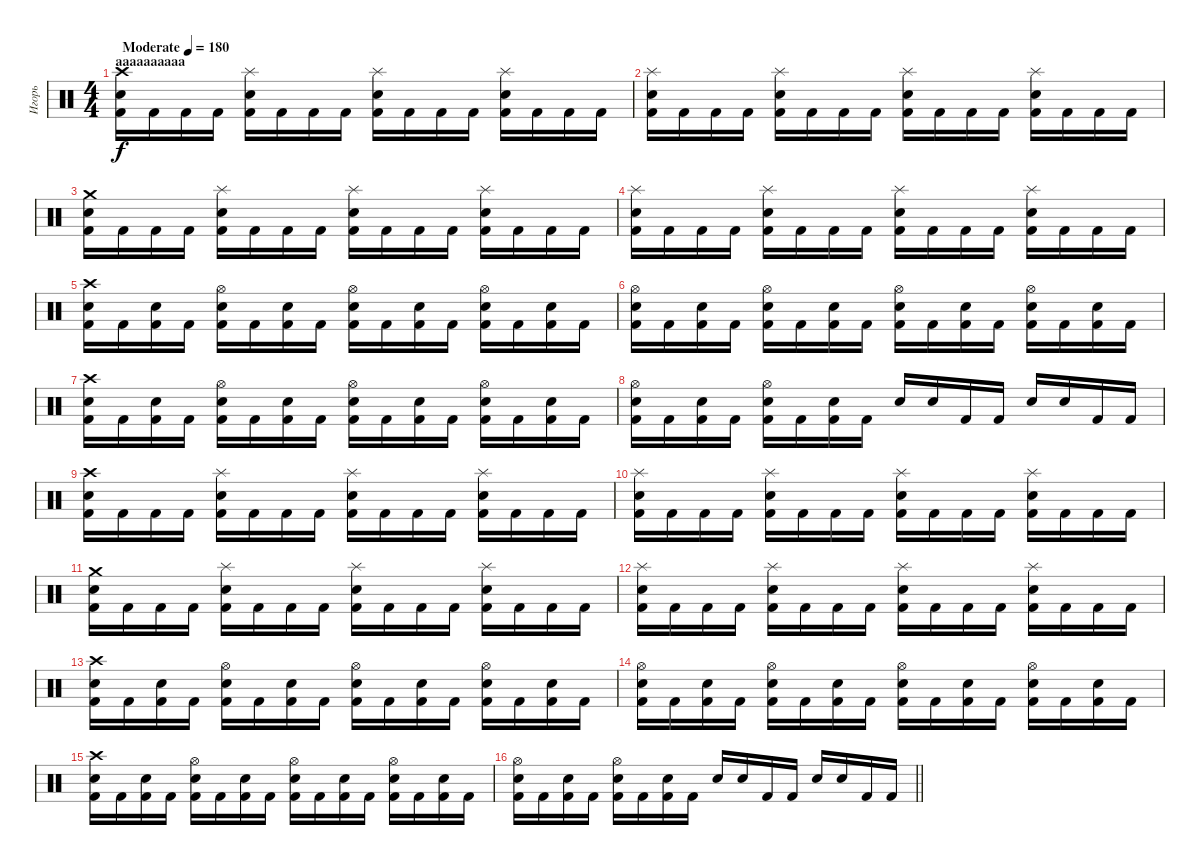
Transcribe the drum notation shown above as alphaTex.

\track ("Игорь" "Игорь") {instrument percussion}
\staff {score}
\articulation defaults
\ts (4 4)
\section ("" "аааааааааа")
\tempo (180 "Moderate")
\clef neutral
\ks c
("Crash high (hit)" "Electric Snare (hit)" "Kick (hit) 2").16{dy f} "Kick (hit) 2".16 "Kick (hit) 2".16 "Kick (hit) 2".16 ("Splash (hit)" "Electric Snare (hit)" "Kick (hit) 2").16 "Kick (hit) 2".16 "Kick (hit) 2".16 "Kick (hit) 2".16 ("Splash (hit)" "Electric Snare (hit)" "Kick (hit) 2").16 "Kick (hit) 2".16 "Kick (hit) 2".16 "Kick (hit) 2".16 ("Splash (hit)" "Electric Snare (hit)" "Kick (hit) 2").16 "Kick (hit) 2".16 "Kick (hit) 2".16 "Kick (hit) 2".16 |
("Splash (hit)" "Electric Snare (hit)" "Kick (hit) 2").16 "Kick (hit) 2".16 "Kick (hit) 2".16 "Kick (hit) 2".16 ("Splash (hit)" "Electric Snare (hit)" "Kick (hit) 2").16 "Kick (hit) 2".16 "Kick (hit) 2".16 "Kick (hit) 2".16 ("Splash (hit)" "Electric Snare (hit)" "Kick (hit) 2").16 "Kick (hit) 2".16 "Kick (hit) 2".16 "Kick (hit) 2".16 ("Splash (hit)" "Electric Snare (hit)" "Kick (hit) 2").16 "Kick (hit) 2".16 "Kick (hit) 2".16 "Kick (hit) 2".16 |
("Crash medium (hit)" "Electric Snare (hit)" "Kick (hit) 2").16 "Kick (hit) 2".16 "Kick (hit) 2".16 "Kick (hit) 2".16 ("Splash (hit)" "Electric Snare (hit)" "Kick (hit) 2").16 "Kick (hit) 2".16 "Kick (hit) 2".16 "Kick (hit) 2".16 ("Splash (hit)" "Electric Snare (hit)" "Kick (hit) 2").16 "Kick (hit) 2".16 "Kick (hit) 2".16 "Kick (hit) 2".16 ("Splash (hit)" "Electric Snare (hit)" "Kick (hit) 2").16 "Kick (hit) 2".16 "Kick (hit) 2".16 "Kick (hit) 2".16 |
("Splash (hit)" "Electric Snare (hit)" "Kick (hit) 2").16 "Kick (hit) 2".16 "Kick (hit) 2".16 "Kick (hit) 2".16 ("Splash (hit)" "Electric Snare (hit)" "Kick (hit) 2").16 "Kick (hit) 2".16 "Kick (hit) 2".16 "Kick (hit) 2".16 ("Splash (hit)" "Electric Snare (hit)" "Kick (hit) 2").16 "Kick (hit) 2".16 "Kick (hit) 2".16 "Kick (hit) 2".16 ("Splash (hit)" "Electric Snare (hit)" "Kick (hit) 2").16 "Kick (hit) 2".16 "Kick (hit) 2".16 "Kick (hit) 2".16 |
("Crash high (hit)" "Electric Snare (hit)" "Kick (hit) 2").16 "Kick (hit) 2".16 ("Electric Snare (hit)" "Kick (hit) 2").16 "Kick (hit) 2".16 ("Hi-Hat (open)" "Electric Snare (hit)" "Kick (hit) 2").16 "Kick (hit) 2".16 ("Electric Snare (hit)" "Kick (hit) 2").16 "Kick (hit) 2".16 ("Hi-Hat (open)" "Electric Snare (hit)" "Kick (hit) 2").16 "Kick (hit) 2".16 ("Electric Snare (hit)" "Kick (hit) 2").16 "Kick (hit) 2".16 ("Hi-Hat (open)" "Electric Snare (hit)" "Kick (hit) 2").16 "Kick (hit) 2".16 ("Electric Snare (hit)" "Kick (hit) 2").16 "Kick (hit) 2".16 |
("Hi-Hat (open)" "Electric Snare (hit)" "Kick (hit) 2").16 "Kick (hit) 2".16 ("Electric Snare (hit)" "Kick (hit) 2").16 "Kick (hit) 2".16 ("Hi-Hat (open)" "Electric Snare (hit)" "Kick (hit) 2").16 "Kick (hit) 2".16 ("Electric Snare (hit)" "Kick (hit) 2").16 "Kick (hit) 2".16 ("Hi-Hat (open)" "Electric Snare (hit)" "Kick (hit) 2").16 "Kick (hit) 2".16 ("Electric Snare (hit)" "Kick (hit) 2").16 "Kick (hit) 2".16 ("Hi-Hat (open)" "Electric Snare (hit)" "Kick (hit) 2").16 "Kick (hit) 2".16 ("Electric Snare (hit)" "Kick (hit) 2").16 "Kick (hit) 2".16 |
("Crash high (hit)" "Electric Snare (hit)" "Kick (hit) 2").16 "Kick (hit) 2".16 ("Electric Snare (hit)" "Kick (hit) 2").16 "Kick (hit) 2".16 ("Hi-Hat (open)" "Electric Snare (hit)" "Kick (hit) 2").16 "Kick (hit) 2".16 ("Electric Snare (hit)" "Kick (hit) 2").16 "Kick (hit) 2".16 ("Hi-Hat (open)" "Electric Snare (hit)" "Kick (hit) 2").16 "Kick (hit) 2".16 ("Electric Snare (hit)" "Kick (hit) 2").16 "Kick (hit) 2".16 ("Hi-Hat (open)" "Electric Snare (hit)" "Kick (hit) 2").16 "Kick (hit) 2".16 ("Electric Snare (hit)" "Kick (hit) 2").16 "Kick (hit) 2".16 |
("Hi-Hat (open)" "Electric Snare (hit)" "Kick (hit) 2").16 "Kick (hit) 2".16 ("Electric Snare (hit)" "Kick (hit) 2").16 "Kick (hit) 2".16 ("Hi-Hat (open)" "Electric Snare (hit)" "Kick (hit) 2").16 "Kick (hit) 2".16 ("Electric Snare (hit)" "Kick (hit) 2").16 "Kick (hit) 2".16 "Electric Snare (hit)".16 "Electric Snare (hit)".16 "Kick (hit) 2".16 "Kick (hit) 2".16 "Electric Snare (hit)".16 "Electric Snare (hit)".16 "Kick (hit) 2".16 "Kick (hit) 2".16 |
("Crash high (hit)" "Electric Snare (hit)" "Kick (hit) 2").16 "Kick (hit) 2".16 "Kick (hit) 2".16 "Kick (hit) 2".16 ("Splash (hit)" "Electric Snare (hit)" "Kick (hit) 2").16 "Kick (hit) 2".16 "Kick (hit) 2".16 "Kick (hit) 2".16 ("Splash (hit)" "Electric Snare (hit)" "Kick (hit) 2").16 "Kick (hit) 2".16 "Kick (hit) 2".16 "Kick (hit) 2".16 ("Splash (hit)" "Electric Snare (hit)" "Kick (hit) 2").16 "Kick (hit) 2".16 "Kick (hit) 2".16 "Kick (hit) 2".16 |
("Splash (hit)" "Electric Snare (hit)" "Kick (hit) 2").16 "Kick (hit) 2".16 "Kick (hit) 2".16 "Kick (hit) 2".16 ("Splash (hit)" "Electric Snare (hit)" "Kick (hit) 2").16 "Kick (hit) 2".16 "Kick (hit) 2".16 "Kick (hit) 2".16 ("Splash (hit)" "Electric Snare (hit)" "Kick (hit) 2").16 "Kick (hit) 2".16 "Kick (hit) 2".16 "Kick (hit) 2".16 ("Splash (hit)" "Electric Snare (hit)" "Kick (hit) 2").16 "Kick (hit) 2".16 "Kick (hit) 2".16 "Kick (hit) 2".16 |
("Crash medium (hit)" "Electric Snare (hit)" "Kick (hit) 2").16 "Kick (hit) 2".16 "Kick (hit) 2".16 "Kick (hit) 2".16 ("Splash (hit)" "Electric Snare (hit)" "Kick (hit) 2").16 "Kick (hit) 2".16 "Kick (hit) 2".16 "Kick (hit) 2".16 ("Splash (hit)" "Electric Snare (hit)" "Kick (hit) 2").16 "Kick (hit) 2".16 "Kick (hit) 2".16 "Kick (hit) 2".16 ("Splash (hit)" "Electric Snare (hit)" "Kick (hit) 2").16 "Kick (hit) 2".16 "Kick (hit) 2".16 "Kick (hit) 2".16 |
("Splash (hit)" "Electric Snare (hit)" "Kick (hit) 2").16 "Kick (hit) 2".16 "Kick (hit) 2".16 "Kick (hit) 2".16 ("Splash (hit)" "Electric Snare (hit)" "Kick (hit) 2").16 "Kick (hit) 2".16 "Kick (hit) 2".16 "Kick (hit) 2".16 ("Splash (hit)" "Electric Snare (hit)" "Kick (hit) 2").16 "Kick (hit) 2".16 "Kick (hit) 2".16 "Kick (hit) 2".16 ("Splash (hit)" "Electric Snare (hit)" "Kick (hit) 2").16 "Kick (hit) 2".16 "Kick (hit) 2".16 "Kick (hit) 2".16 |
("Crash high (hit)" "Electric Snare (hit)" "Kick (hit) 2").16 "Kick (hit) 2".16 ("Electric Snare (hit)" "Kick (hit) 2").16 "Kick (hit) 2".16 ("Hi-Hat (open)" "Electric Snare (hit)" "Kick (hit) 2").16 "Kick (hit) 2".16 ("Electric Snare (hit)" "Kick (hit) 2").16 "Kick (hit) 2".16 ("Hi-Hat (open)" "Electric Snare (hit)" "Kick (hit) 2").16 "Kick (hit) 2".16 ("Electric Snare (hit)" "Kick (hit) 2").16 "Kick (hit) 2".16 ("Hi-Hat (open)" "Electric Snare (hit)" "Kick (hit) 2").16 "Kick (hit) 2".16 ("Electric Snare (hit)" "Kick (hit) 2").16 "Kick (hit) 2".16 |
("Hi-Hat (open)" "Electric Snare (hit)" "Kick (hit) 2").16 "Kick (hit) 2".16 ("Electric Snare (hit)" "Kick (hit) 2").16 "Kick (hit) 2".16 ("Hi-Hat (open)" "Electric Snare (hit)" "Kick (hit) 2").16 "Kick (hit) 2".16 ("Electric Snare (hit)" "Kick (hit) 2").16 "Kick (hit) 2".16 ("Hi-Hat (open)" "Electric Snare (hit)" "Kick (hit) 2").16 "Kick (hit) 2".16 ("Electric Snare (hit)" "Kick (hit) 2").16 "Kick (hit) 2".16 ("Hi-Hat (open)" "Electric Snare (hit)" "Kick (hit) 2").16 "Kick (hit) 2".16 ("Electric Snare (hit)" "Kick (hit) 2").16 "Kick (hit) 2".16 |
("Crash high (hit)" "Electric Snare (hit)" "Kick (hit) 2").16 "Kick (hit) 2".16 ("Electric Snare (hit)" "Kick (hit) 2").16 "Kick (hit) 2".16 ("Hi-Hat (open)" "Electric Snare (hit)" "Kick (hit) 2").16 "Kick (hit) 2".16 ("Electric Snare (hit)" "Kick (hit) 2").16 "Kick (hit) 2".16 ("Hi-Hat (open)" "Electric Snare (hit)" "Kick (hit) 2").16 "Kick (hit) 2".16 ("Electric Snare (hit)" "Kick (hit) 2").16 "Kick (hit) 2".16 ("Hi-Hat (open)" "Electric Snare (hit)" "Kick (hit) 2").16 "Kick (hit) 2".16 ("Electric Snare (hit)" "Kick (hit) 2").16 "Kick (hit) 2".16 |
\barLineRight lightlight
("Hi-Hat (open)" "Electric Snare (hit)" "Kick (hit) 2").16 "Kick (hit) 2".16 ("Electric Snare (hit)" "Kick (hit) 2").16 "Kick (hit) 2".16 ("Hi-Hat (open)" "Electric Snare (hit)" "Kick (hit) 2").16 "Kick (hit) 2".16 ("Electric Snare (hit)" "Kick (hit) 2").16 "Kick (hit) 2".16 "Electric Snare (hit)".16 "Electric Snare (hit)".16 "Kick (hit) 2".16 "Kick (hit) 2".16 "Electric Snare (hit)".16 "Electric Snare (hit)".16 "Kick (hit) 2".16 "Kick (hit) 2".16
